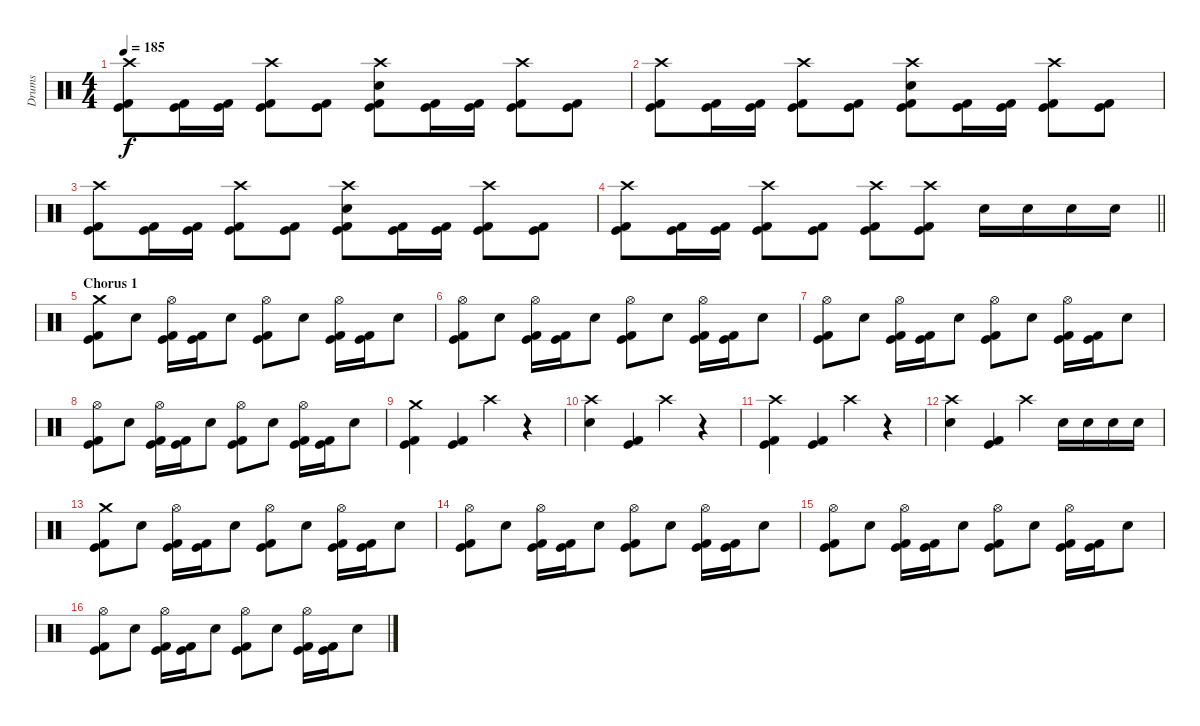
\track ("Drums" "Drums") {instrument percussion}
\staff {score}
\articulation defaults
\ts (4 4)
\tempo 185
\clef neutral
\ks c
("Crash high (hit)" "Kick (hit) 2" "Kick (hit)").8{dy f} ("Kick (hit) 2" "Kick (hit)").16 ("Kick (hit) 2" "Kick (hit)").16 ("Crash high (hit)" "Kick (hit) 2" "Kick (hit)").8 ("Kick (hit) 2" "Kick (hit)").8 ("Crash high (hit)" "Electric Snare (hit)" "Kick (hit) 2" "Kick (hit)").8 ("Kick (hit) 2" "Kick (hit)").16 ("Kick (hit) 2" "Kick (hit)").16 ("Crash high (hit)" "Kick (hit) 2" "Kick (hit)").8 ("Kick (hit) 2" "Kick (hit)").8 |
("Crash high (hit)" "Kick (hit) 2" "Kick (hit)").8 ("Kick (hit) 2" "Kick (hit)").16 ("Kick (hit) 2" "Kick (hit)").16 ("Crash high (hit)" "Kick (hit) 2" "Kick (hit)").8 ("Kick (hit) 2" "Kick (hit)").8 ("Crash high (hit)" "Electric Snare (hit)" "Kick (hit) 2" "Kick (hit)").8 ("Kick (hit) 2" "Kick (hit)").16 ("Kick (hit) 2" "Kick (hit)").16 ("Crash high (hit)" "Kick (hit) 2" "Kick (hit)").8 ("Kick (hit) 2" "Kick (hit)").8 |
("Crash high (hit)" "Kick (hit) 2" "Kick (hit)").8 ("Kick (hit) 2" "Kick (hit)").16 ("Kick (hit) 2" "Kick (hit)").16 ("Crash high (hit)" "Kick (hit) 2" "Kick (hit)").8 ("Kick (hit) 2" "Kick (hit)").8 ("Crash high (hit)" "Electric Snare (hit)" "Kick (hit) 2" "Kick (hit)").8 ("Kick (hit) 2" "Kick (hit)").16 ("Kick (hit) 2" "Kick (hit)").16 ("Crash high (hit)" "Kick (hit) 2" "Kick (hit)").8 ("Kick (hit) 2" "Kick (hit)").8 |
\barLineRight lightlight
("Crash high (hit)" "Kick (hit) 2" "Kick (hit)").8 ("Kick (hit) 2" "Kick (hit)").16 ("Kick (hit) 2" "Kick (hit)").16 ("Crash high (hit)" "Kick (hit) 2" "Kick (hit)").8 ("Kick (hit) 2" "Kick (hit)").8 ("Crash high (hit)" "Kick (hit) 2" "Kick (hit)").8 ("Crash high (hit)" "Kick (hit) 2" "Kick (hit)").8 "Electric Snare (hit)".16 "Electric Snare (hit)".16 "Electric Snare (hit)".16 "Electric Snare (hit)".16 |
\section ("" "Chorus 1")
("Crash medium (hit)" "Kick (hit) 2" "Kick (hit)").8 "Electric Snare (hit)".8 ("Hi-Hat (open)" "Kick (hit) 2" "Kick (hit)").16 ("Kick (hit) 2" "Kick (hit)").16 "Electric Snare (hit)".8 ("Hi-Hat (open)" "Kick (hit) 2" "Kick (hit)").8 "Electric Snare (hit)".8 ("Hi-Hat (open)" "Kick (hit) 2" "Kick (hit)").16 ("Kick (hit) 2" "Kick (hit)").16 "Electric Snare (hit)".8 |
("Hi-Hat (open)" "Kick (hit) 2" "Kick (hit)").8 "Electric Snare (hit)".8 ("Hi-Hat (open)" "Kick (hit) 2" "Kick (hit)").16 ("Kick (hit) 2" "Kick (hit)").16 "Electric Snare (hit)".8 ("Hi-Hat (open)" "Kick (hit) 2" "Kick (hit)").8 "Electric Snare (hit)".8 ("Hi-Hat (open)" "Kick (hit) 2" "Kick (hit)").16 ("Kick (hit) 2" "Kick (hit)").16 "Electric Snare (hit)".8 |
("Hi-Hat (open)" "Kick (hit) 2" "Kick (hit)").8 "Electric Snare (hit)".8 ("Hi-Hat (open)" "Kick (hit) 2" "Kick (hit)").16 ("Kick (hit) 2" "Kick (hit)").16 "Electric Snare (hit)".8 ("Hi-Hat (open)" "Kick (hit) 2" "Kick (hit)").8 "Electric Snare (hit)".8 ("Hi-Hat (open)" "Kick (hit) 2" "Kick (hit)").16 ("Kick (hit) 2" "Kick (hit)").16 "Electric Snare (hit)".8 |
("Hi-Hat (open)" "Kick (hit) 2" "Kick (hit)").8 "Electric Snare (hit)".8 ("Hi-Hat (open)" "Kick (hit) 2" "Kick (hit)").16 ("Kick (hit) 2" "Kick (hit)").16 "Electric Snare (hit)".8 ("Hi-Hat (open)" "Kick (hit) 2" "Kick (hit)").8 "Electric Snare (hit)".8 ("Hi-Hat (open)" "Kick (hit) 2" "Kick (hit)").16 ("Kick (hit) 2" "Kick (hit)").16 "Electric Snare (hit)".8 |
("Crash medium (hit)" "Kick (hit) 2" "Kick (hit)").4 ("Kick (hit) 2" "Kick (hit)").4 "Crash high (hit)".4 r.4 |
("Crash high (hit)" "Electric Snare (hit)").4 ("Kick (hit) 2" "Kick (hit)").4 "Crash high (hit)".4 r.4 |
("Crash high (hit)" "Kick (hit) 2" "Kick (hit)").4 ("Kick (hit) 2" "Kick (hit)").4 "Crash high (hit)".4 r.4 |
("Crash high (hit)" "Electric Snare (hit)").4 ("Kick (hit) 2" "Kick (hit)").4 "Crash high (hit)".4 "Electric Snare (hit)".16 "Electric Snare (hit)".16 "Electric Snare (hit)".16 "Electric Snare (hit)".16 |
("Crash medium (hit)" "Kick (hit) 2" "Kick (hit)").8 "Electric Snare (hit)".8 ("Hi-Hat (open)" "Kick (hit) 2" "Kick (hit)").16 ("Kick (hit) 2" "Kick (hit)").16 "Electric Snare (hit)".8 ("Hi-Hat (open)" "Kick (hit) 2" "Kick (hit)").8 "Electric Snare (hit)".8 ("Hi-Hat (open)" "Kick (hit) 2" "Kick (hit)").16 ("Kick (hit) 2" "Kick (hit)").16 "Electric Snare (hit)".8 |
("Hi-Hat (open)" "Kick (hit) 2" "Kick (hit)").8 "Electric Snare (hit)".8 ("Hi-Hat (open)" "Kick (hit) 2" "Kick (hit)").16 ("Kick (hit) 2" "Kick (hit)").16 "Electric Snare (hit)".8 ("Hi-Hat (open)" "Kick (hit) 2" "Kick (hit)").8 "Electric Snare (hit)".8 ("Hi-Hat (open)" "Kick (hit) 2" "Kick (hit)").16 ("Kick (hit) 2" "Kick (hit)").16 "Electric Snare (hit)".8 |
("Hi-Hat (open)" "Kick (hit) 2" "Kick (hit)").8 "Electric Snare (hit)".8 ("Hi-Hat (open)" "Kick (hit) 2" "Kick (hit)").16 ("Kick (hit) 2" "Kick (hit)").16 "Electric Snare (hit)".8 ("Hi-Hat (open)" "Kick (hit) 2" "Kick (hit)").8 "Electric Snare (hit)".8 ("Hi-Hat (open)" "Kick (hit) 2" "Kick (hit)").16 ("Kick (hit) 2" "Kick (hit)").16 "Electric Snare (hit)".8 |
("Hi-Hat (open)" "Kick (hit) 2" "Kick (hit)").8 "Electric Snare (hit)".8 ("Hi-Hat (open)" "Kick (hit) 2" "Kick (hit)").16 ("Kick (hit) 2" "Kick (hit)").16 "Electric Snare (hit)".8 ("Hi-Hat (open)" "Kick (hit) 2" "Kick (hit)").8 "Electric Snare (hit)".8 ("Hi-Hat (open)" "Kick (hit) 2" "Kick (hit)").16 ("Kick (hit) 2" "Kick (hit)").16 "Electric Snare (hit)".8
